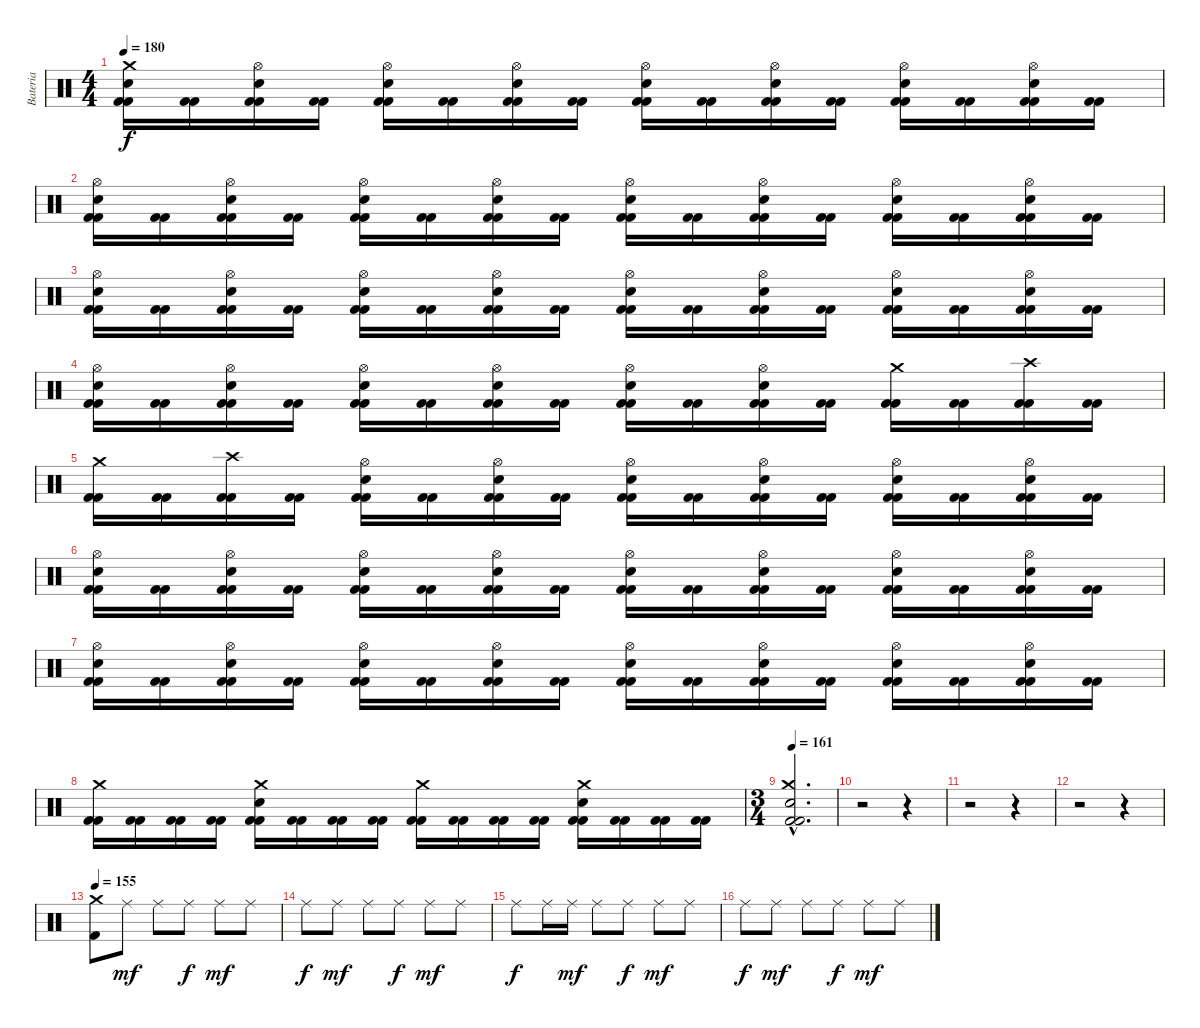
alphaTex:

\track ("Bateria" "Bateria") {instrument percussion}
\staff {score}
\articulation defaults
\ts (4 4)
\tempo 180
\clef neutral
\ks c
("Kick (hit) 2" "Kick (hit) 2" "Electric Snare (hit)" "Crash medium (hit)").16{dy f} ("Kick (hit) 2" "Kick (hit) 2").16 ("Kick (hit) 2" "Kick (hit) 2" "Hi-Hat (open)" "Electric Snare (hit)").16 ("Kick (hit) 2" "Kick (hit) 2").16 ("Kick (hit) 2" "Kick (hit) 2" "Electric Snare (hit)" "Hi-Hat (open)").16 ("Kick (hit) 2" "Kick (hit) 2").16 ("Kick (hit) 2" "Kick (hit) 2" "Hi-Hat (open)" "Electric Snare (hit)").16 ("Kick (hit) 2" "Kick (hit) 2").16 ("Kick (hit) 2" "Kick (hit) 2" "Electric Snare (hit)" "Hi-Hat (open)").16 ("Kick (hit) 2" "Kick (hit) 2").16 ("Kick (hit) 2" "Kick (hit) 2" "Hi-Hat (open)" "Electric Snare (hit)").16 ("Kick (hit) 2" "Kick (hit) 2").16 ("Kick (hit) 2" "Kick (hit) 2" "Electric Snare (hit)" "Hi-Hat (open)").16 ("Kick (hit) 2" "Kick (hit) 2").16 ("Kick (hit) 2" "Kick (hit) 2" "Hi-Hat (open)" "Electric Snare (hit)").16 ("Kick (hit) 2" "Kick (hit) 2").16 |
("Kick (hit) 2" "Kick (hit) 2" "Electric Snare (hit)" "Hi-Hat (open)").16 ("Kick (hit) 2" "Kick (hit) 2").16 ("Kick (hit) 2" "Kick (hit) 2" "Hi-Hat (open)" "Electric Snare (hit)").16 ("Kick (hit) 2" "Kick (hit) 2").16 ("Kick (hit) 2" "Kick (hit) 2" "Electric Snare (hit)" "Hi-Hat (open)").16 ("Kick (hit) 2" "Kick (hit) 2").16 ("Kick (hit) 2" "Kick (hit) 2" "Hi-Hat (open)" "Electric Snare (hit)").16 ("Kick (hit) 2" "Kick (hit) 2").16 ("Kick (hit) 2" "Kick (hit) 2" "Electric Snare (hit)" "Hi-Hat (open)").16 ("Kick (hit) 2" "Kick (hit) 2").16 ("Kick (hit) 2" "Kick (hit) 2" "Hi-Hat (open)" "Electric Snare (hit)").16 ("Kick (hit) 2" "Kick (hit) 2").16 ("Kick (hit) 2" "Kick (hit) 2" "Electric Snare (hit)" "Hi-Hat (open)").16 ("Kick (hit) 2" "Kick (hit) 2").16 ("Kick (hit) 2" "Kick (hit) 2" "Hi-Hat (open)" "Electric Snare (hit)").16 ("Kick (hit) 2" "Kick (hit) 2").16 |
("Kick (hit) 2" "Kick (hit) 2" "Electric Snare (hit)" "Hi-Hat (open)").16 ("Kick (hit) 2" "Kick (hit) 2").16 ("Kick (hit) 2" "Kick (hit) 2" "Hi-Hat (open)" "Electric Snare (hit)").16 ("Kick (hit) 2" "Kick (hit) 2").16 ("Kick (hit) 2" "Kick (hit) 2" "Electric Snare (hit)" "Hi-Hat (open)").16 ("Kick (hit) 2" "Kick (hit) 2").16 ("Kick (hit) 2" "Kick (hit) 2" "Hi-Hat (open)" "Electric Snare (hit)").16 ("Kick (hit) 2" "Kick (hit) 2").16 ("Kick (hit) 2" "Kick (hit) 2" "Electric Snare (hit)" "Hi-Hat (open)").16 ("Kick (hit) 2" "Kick (hit) 2").16 ("Kick (hit) 2" "Kick (hit) 2" "Hi-Hat (open)" "Electric Snare (hit)").16 ("Kick (hit) 2" "Kick (hit) 2").16 ("Kick (hit) 2" "Kick (hit) 2" "Electric Snare (hit)" "Hi-Hat (open)").16 ("Kick (hit) 2" "Kick (hit) 2").16 ("Kick (hit) 2" "Kick (hit) 2" "Hi-Hat (open)" "Electric Snare (hit)").16 ("Kick (hit) 2" "Kick (hit) 2").16 |
("Kick (hit) 2" "Kick (hit) 2" "Electric Snare (hit)" "Hi-Hat (open)").16 ("Kick (hit) 2" "Kick (hit) 2").16 ("Kick (hit) 2" "Kick (hit) 2" "Hi-Hat (open)" "Electric Snare (hit)").16 ("Kick (hit) 2" "Kick (hit) 2").16 ("Kick (hit) 2" "Kick (hit) 2" "Electric Snare (hit)" "Hi-Hat (open)").16 ("Kick (hit) 2" "Kick (hit) 2").16 ("Kick (hit) 2" "Kick (hit) 2" "Hi-Hat (open)" "Electric Snare (hit)").16 ("Kick (hit) 2" "Kick (hit) 2").16 ("Kick (hit) 2" "Kick (hit) 2" "Electric Snare (hit)" "Hi-Hat (open)").16 ("Kick (hit) 2" "Kick (hit) 2").16 ("Kick (hit) 2" "Kick (hit) 2" "Hi-Hat (open)" "Electric Snare (hit)").16 ("Kick (hit) 2" "Kick (hit) 2").16 ("Kick (hit) 2" "Kick (hit) 2" "Crash medium (hit)").16 ("Kick (hit) 2" "Kick (hit) 2").16 ("Kick (hit) 2" "Kick (hit) 2" "Crash high (hit)").16 ("Kick (hit) 2" "Kick (hit) 2").16 |
("Kick (hit) 2" "Kick (hit) 2" "Crash medium (hit)").16 ("Kick (hit) 2" "Kick (hit) 2").16 ("Kick (hit) 2" "Kick (hit) 2" "Crash high (hit)").16 ("Kick (hit) 2" "Kick (hit) 2").16 ("Kick (hit) 2" "Kick (hit) 2" "Electric Snare (hit)" "Hi-Hat (open)").16 ("Kick (hit) 2" "Kick (hit) 2").16 ("Kick (hit) 2" "Kick (hit) 2" "Hi-Hat (open)" "Electric Snare (hit)").16 ("Kick (hit) 2" "Kick (hit) 2").16 ("Kick (hit) 2" "Kick (hit) 2" "Electric Snare (hit)" "Hi-Hat (open)").16 ("Kick (hit) 2" "Kick (hit) 2").16 ("Kick (hit) 2" "Kick (hit) 2" "Hi-Hat (open)" "Electric Snare (hit)").16 ("Kick (hit) 2" "Kick (hit) 2").16 ("Kick (hit) 2" "Kick (hit) 2" "Electric Snare (hit)" "Hi-Hat (open)").16 ("Kick (hit) 2" "Kick (hit) 2").16 ("Kick (hit) 2" "Kick (hit) 2" "Hi-Hat (open)" "Electric Snare (hit)").16 ("Kick (hit) 2" "Kick (hit) 2").16 |
("Kick (hit) 2" "Kick (hit) 2" "Electric Snare (hit)" "Hi-Hat (open)").16 ("Kick (hit) 2" "Kick (hit) 2").16 ("Kick (hit) 2" "Kick (hit) 2" "Hi-Hat (open)" "Electric Snare (hit)").16 ("Kick (hit) 2" "Kick (hit) 2").16 ("Kick (hit) 2" "Kick (hit) 2" "Electric Snare (hit)" "Hi-Hat (open)").16 ("Kick (hit) 2" "Kick (hit) 2").16 ("Kick (hit) 2" "Kick (hit) 2" "Hi-Hat (open)" "Electric Snare (hit)").16 ("Kick (hit) 2" "Kick (hit) 2").16 ("Kick (hit) 2" "Kick (hit) 2" "Electric Snare (hit)" "Hi-Hat (open)").16 ("Kick (hit) 2" "Kick (hit) 2").16 ("Kick (hit) 2" "Kick (hit) 2" "Hi-Hat (open)" "Electric Snare (hit)").16 ("Kick (hit) 2" "Kick (hit) 2").16 ("Kick (hit) 2" "Kick (hit) 2" "Electric Snare (hit)" "Hi-Hat (open)").16 ("Kick (hit) 2" "Kick (hit) 2").16 ("Kick (hit) 2" "Kick (hit) 2" "Hi-Hat (open)" "Electric Snare (hit)").16 ("Kick (hit) 2" "Kick (hit) 2").16 |
("Kick (hit) 2" "Kick (hit) 2" "Electric Snare (hit)" "Hi-Hat (open)").16 ("Kick (hit) 2" "Kick (hit) 2").16 ("Kick (hit) 2" "Kick (hit) 2" "Hi-Hat (open)" "Electric Snare (hit)").16 ("Kick (hit) 2" "Kick (hit) 2").16 ("Kick (hit) 2" "Kick (hit) 2" "Electric Snare (hit)" "Hi-Hat (open)").16 ("Kick (hit) 2" "Kick (hit) 2").16 ("Kick (hit) 2" "Kick (hit) 2" "Hi-Hat (open)" "Electric Snare (hit)").16 ("Kick (hit) 2" "Kick (hit) 2").16 ("Kick (hit) 2" "Kick (hit) 2" "Electric Snare (hit)" "Hi-Hat (open)").16 ("Kick (hit) 2" "Kick (hit) 2").16 ("Kick (hit) 2" "Kick (hit) 2" "Hi-Hat (open)" "Electric Snare (hit)").16 ("Kick (hit) 2" "Kick (hit) 2").16 ("Kick (hit) 2" "Kick (hit) 2" "Electric Snare (hit)" "Hi-Hat (open)").16 ("Kick (hit) 2" "Kick (hit) 2").16 ("Kick (hit) 2" "Kick (hit) 2" "Hi-Hat (open)" "Electric Snare (hit)").16 ("Kick (hit) 2" "Kick (hit) 2").16 |
("Crash medium (hit)" "Kick (hit) 2" "Kick (hit) 2").16 ("Kick (hit) 2" "Kick (hit) 2").16 ("Kick (hit) 2" "Kick (hit) 2").16 ("Kick (hit) 2" "Kick (hit) 2").16 ("Crash medium (hit)" "Electric Snare (hit)" "Kick (hit) 2" "Kick (hit) 2").16 ("Kick (hit) 2" "Kick (hit) 2").16 ("Kick (hit) 2" "Kick (hit) 2").16 ("Kick (hit) 2" "Kick (hit) 2").16 ("Crash medium (hit)" "Kick (hit) 2" "Kick (hit) 2").16 ("Kick (hit) 2" "Kick (hit) 2").16 ("Kick (hit) 2" "Kick (hit) 2").16 ("Kick (hit) 2" "Kick (hit) 2").16 ("Crash medium (hit)" "Electric Snare (hit)" "Kick (hit) 2" "Kick (hit) 2").16 ("Kick (hit) 2" "Kick (hit) 2").16 ("Kick (hit) 2" "Kick (hit) 2").16 ("Kick (hit) 2" "Kick (hit) 2").16 |
\ts (3 4)
\tempo 161
("Kick (hit) 2"{hac} "Kick (hit) 2"{hac} "Snare (hit) 2"{hac} "Crash medium (hit)"{hac}).2{d} |
r.2 r.4 |
r.2 r.4 |
r.2 r.4 |
\tempo 155
("Crash medium (hit)" "Kick (hit) 2").8 "Ride (middle)".8{dy mf} "Ride (middle)".8 "Ride (middle)".8{dy f} "Ride (middle)".8{dy mf} "Ride (middle)".8 |
"Ride (middle)".8{dy f} "Ride (middle)".8{dy mf} "Ride (middle)".8 "Ride (middle)".8{dy f} "Ride (middle)".8{dy mf} "Ride (middle)".8 |
"Ride (middle)".8{dy f} "Ride (middle)".16 "Ride (middle)".16{dy mf} "Ride (middle)".8 "Ride (middle)".8{dy f} "Ride (middle)".8{dy mf} "Ride (middle)".8 |
"Ride (middle)".8{dy f} "Ride (middle)".8{dy mf} "Ride (middle)".8 "Ride (middle)".8{dy f} "Ride (middle)".8{dy mf} "Ride (middle)".8
